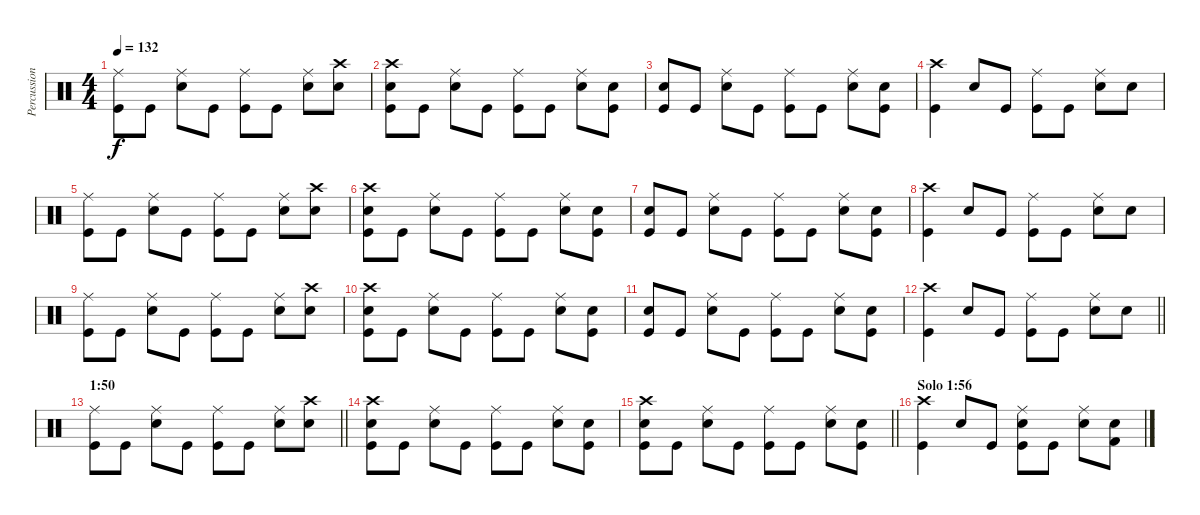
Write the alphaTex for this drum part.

\track ("Percussion" "Percussion") {instrument percussion}
\staff {score}
\articulation defaults
\ts (4 4)
\tempo 132
\clef neutral
\ks c
("Ride (middle)" "Kick (hit)").8{dy f} "Kick (hit)".8 ("Ride (middle)" "Electric Snare (hit)").8 "Kick (hit)".8 ("Ride (middle)" "Kick (hit)").8 "Kick (hit)".8 ("Ride (middle)" "Electric Snare (hit)").8 ("Crash high (hit)" "Electric Snare (hit)").8 |
("Crash high (hit)" "Electric Snare (hit)" "Kick (hit)").8 "Kick (hit)".8 ("Ride (middle)" "Electric Snare (hit)").8 "Kick (hit)".8 ("Ride (middle)" "Kick (hit)").8 "Kick (hit)".8 ("Ride (middle)" "Electric Snare (hit)").8 ("Electric Snare (hit)" "Kick (hit)").8 |
("Electric Snare (hit)" "Kick (hit)").8 "Kick (hit)".8 ("Ride (middle)" "Electric Snare (hit)").8 "Kick (hit)".8 ("Ride (middle)" "Kick (hit)").8 "Kick (hit)".8 ("Ride (middle)" "Electric Snare (hit)").8 ("Electric Snare (hit)" "Kick (hit)").8 |
("Crash high (hit)" "Kick (hit)").4 "Electric Snare (hit)".8 "Kick (hit)".8 ("Ride (middle)" "Kick (hit)").8 "Kick (hit)".8 ("Ride (middle)" "Electric Snare (hit)").8 "Electric Snare (hit)".8 |
("Ride (middle)" "Kick (hit)").8 "Kick (hit)".8 ("Ride (middle)" "Electric Snare (hit)").8 "Kick (hit)".8 ("Ride (middle)" "Kick (hit)").8 "Kick (hit)".8 ("Ride (middle)" "Electric Snare (hit)").8 ("Crash high (hit)" "Electric Snare (hit)").8 |
("Crash high (hit)" "Electric Snare (hit)" "Kick (hit)").8 "Kick (hit)".8 ("Ride (middle)" "Electric Snare (hit)").8 "Kick (hit)".8 ("Ride (middle)" "Kick (hit)").8 "Kick (hit)".8 ("Ride (middle)" "Electric Snare (hit)").8 ("Electric Snare (hit)" "Kick (hit)").8 |
("Electric Snare (hit)" "Kick (hit)").8 "Kick (hit)".8 ("Ride (middle)" "Electric Snare (hit)").8 "Kick (hit)".8 ("Ride (middle)" "Kick (hit)").8 "Kick (hit)".8 ("Ride (middle)" "Electric Snare (hit)").8 ("Electric Snare (hit)" "Kick (hit)").8 |
("Crash high (hit)" "Kick (hit)").4 "Electric Snare (hit)".8 "Kick (hit)".8 ("Ride (middle)" "Kick (hit)").8 "Kick (hit)".8 ("Ride (middle)" "Electric Snare (hit)").8 "Electric Snare (hit)".8 |
("Ride (middle)" "Kick (hit)").8 "Kick (hit)".8 ("Ride (middle)" "Electric Snare (hit)").8 "Kick (hit)".8 ("Ride (middle)" "Kick (hit)").8 "Kick (hit)".8 ("Ride (middle)" "Electric Snare (hit)").8 ("Crash high (hit)" "Electric Snare (hit)").8 |
("Crash high (hit)" "Electric Snare (hit)" "Kick (hit)").8 "Kick (hit)".8 ("Ride (middle)" "Electric Snare (hit)").8 "Kick (hit)".8 ("Ride (middle)" "Kick (hit)").8 "Kick (hit)".8 ("Ride (middle)" "Electric Snare (hit)").8 ("Electric Snare (hit)" "Kick (hit)").8 |
("Electric Snare (hit)" "Kick (hit)").8 "Kick (hit)".8 ("Ride (middle)" "Electric Snare (hit)").8 "Kick (hit)".8 ("Ride (middle)" "Kick (hit)").8 "Kick (hit)".8 ("Ride (middle)" "Electric Snare (hit)").8 ("Electric Snare (hit)" "Kick (hit)").8 |
\barLineRight lightlight
("Crash high (hit)" "Kick (hit)").4 "Electric Snare (hit)".8 "Kick (hit)".8 ("Ride (middle)" "Kick (hit)").8 "Kick (hit)".8 ("Ride (middle)" "Electric Snare (hit)").8 "Electric Snare (hit)".8 |
\section ("" "1:50")
\barLineRight lightlight
("Ride (middle)" "Kick (hit)").8 "Kick (hit)".8 ("Ride (middle)" "Electric Snare (hit)").8 "Kick (hit)".8 ("Ride (middle)" "Kick (hit)").8 "Kick (hit)".8 ("Ride (middle)" "Electric Snare (hit)").8 ("Crash high (hit)" "Electric Snare (hit)").8 |
("Crash high (hit)" "Electric Snare (hit)" "Kick (hit)").8 "Kick (hit)".8 ("Ride (middle)" "Electric Snare (hit)").8 "Kick (hit)".8 ("Ride (middle)" "Kick (hit)").8 "Kick (hit)".8 ("Ride (middle)" "Electric Snare (hit)").8 ("Electric Snare (hit)" "Kick (hit)").8 |
\barLineRight lightlight
("Crash high (hit)" "Electric Snare (hit)" "Kick (hit)").8 "Kick (hit)".8 ("Ride (middle)" "Electric Snare (hit)").8 "Kick (hit)".8 ("Ride (middle)" "Kick (hit)").8 "Kick (hit)".8 ("Ride (middle)" "Electric Snare (hit)").8 ("Electric Snare (hit)" "Kick (hit)").8 |
\section ("" "Solo 1:56")
("Crash high (hit)" "Kick (hit)").4 "Electric Snare (hit)".8 "Kick (hit)".8 ("Ride (middle)" "Electric Snare (hit)" "Kick (hit)").8 "Kick (hit)".8 ("Ride (middle)" "Electric Snare (hit)").8 ("Electric Snare (hit)" "Kick (hit) 2").8
